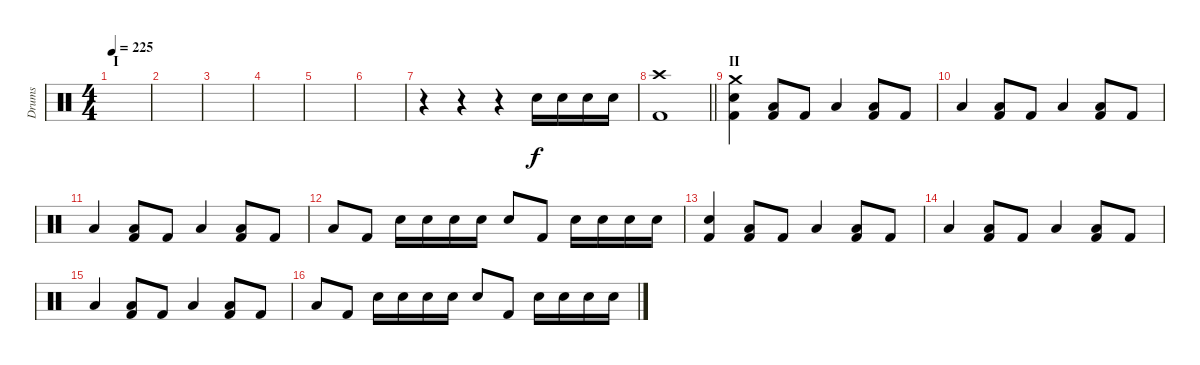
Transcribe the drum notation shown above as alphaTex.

\track ("Drums" "Drums") {instrument percussion}
\staff {score}
\articulation defaults
\ts (4 4)
\section ("" "I")
\tempo 225
\clef neutral
\ks c
|
|
|
|
|
|
r.4 r.4 r.4 "Electric Snare (hit)".16 "Electric Snare (hit)".16 "Electric Snare (hit)".16 "Electric Snare (hit)".16 |
\barLineRight lightlight
("Crash high (hit)" "Kick (hit) 2").1 |
\section ("" "II")
("Crash medium (hit)" "Electric Snare (hit)" "Kick (hit) 2").4 ("Low Tom (hit)" "Kick (hit) 2").8 "Kick (hit) 2".8 "Low Tom (hit)".4 ("Low Tom (hit)" "Kick (hit) 2").8 "Kick (hit) 2".8 |
"Low Tom (hit)".4 ("Low Tom (hit)" "Kick (hit) 2").8 "Kick (hit) 2".8 "Low Tom (hit)".4 ("Low Tom (hit)" "Kick (hit) 2").8 "Kick (hit) 2".8 |
"Low Tom (hit)".4 ("Low Tom (hit)" "Kick (hit) 2").8 "Kick (hit) 2".8 "Low Tom (hit)".4 ("Low Tom (hit)" "Kick (hit) 2").8 "Kick (hit) 2".8 |
"Low Tom (hit)".8 "Kick (hit) 2".8 "Electric Snare (hit)".16 "Electric Snare (hit)".16 "Electric Snare (hit)".16 "Electric Snare (hit)".16 "Electric Snare (hit)".8 "Kick (hit) 2".8 "Electric Snare (hit)".16 "Electric Snare (hit)".16 "Electric Snare (hit)".16 "Electric Snare (hit)".16 |
("Electric Snare (hit)" "Kick (hit) 2").4 ("Low Tom (hit)" "Kick (hit) 2").8 "Kick (hit) 2".8 "Low Tom (hit)".4 ("Low Tom (hit)" "Kick (hit) 2").8 "Kick (hit) 2".8 |
"Low Tom (hit)".4 ("Low Tom (hit)" "Kick (hit) 2").8 "Kick (hit) 2".8 "Low Tom (hit)".4 ("Low Tom (hit)" "Kick (hit) 2").8 "Kick (hit) 2".8 |
"Low Tom (hit)".4 ("Low Tom (hit)" "Kick (hit) 2").8 "Kick (hit) 2".8 "Low Tom (hit)".4 ("Low Tom (hit)" "Kick (hit) 2").8 "Kick (hit) 2".8 |
"Low Tom (hit)".8 "Kick (hit) 2".8 "Electric Snare (hit)".16 "Electric Snare (hit)".16 "Electric Snare (hit)".16 "Electric Snare (hit)".16 "Electric Snare (hit)".8 "Kick (hit) 2".8 "Electric Snare (hit)".16 "Electric Snare (hit)".16 "Electric Snare (hit)".16 "Electric Snare (hit)".16
